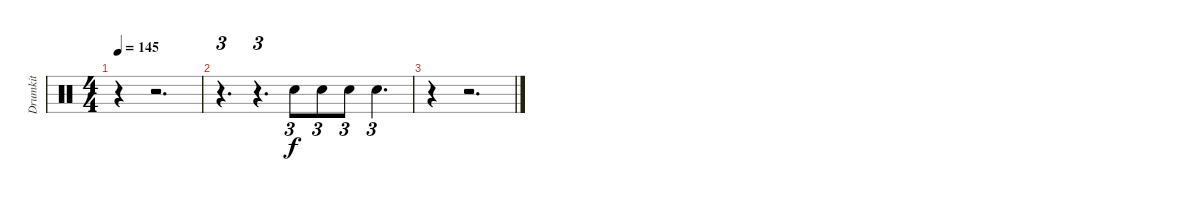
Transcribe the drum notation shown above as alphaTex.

\track ("Drumkit" "Drumkit") {instrument percussion}
\staff {score}
\articulation defaults
\ts (4 4)
\tempo 145
\clef neutral
\ks c
r.4{dy f} r.2{d} |
r.4{d tu (3 2)} r.4{d tu (3 2)} "Snare (hit) 2".8{tu (3 2)} "Snare (hit) 2".8{tu (3 2)} "Snare (hit) 2".8{tu (3 2)} "Snare (hit) 2".4{d tu (3 2)} |
r.4 r.2{d}
